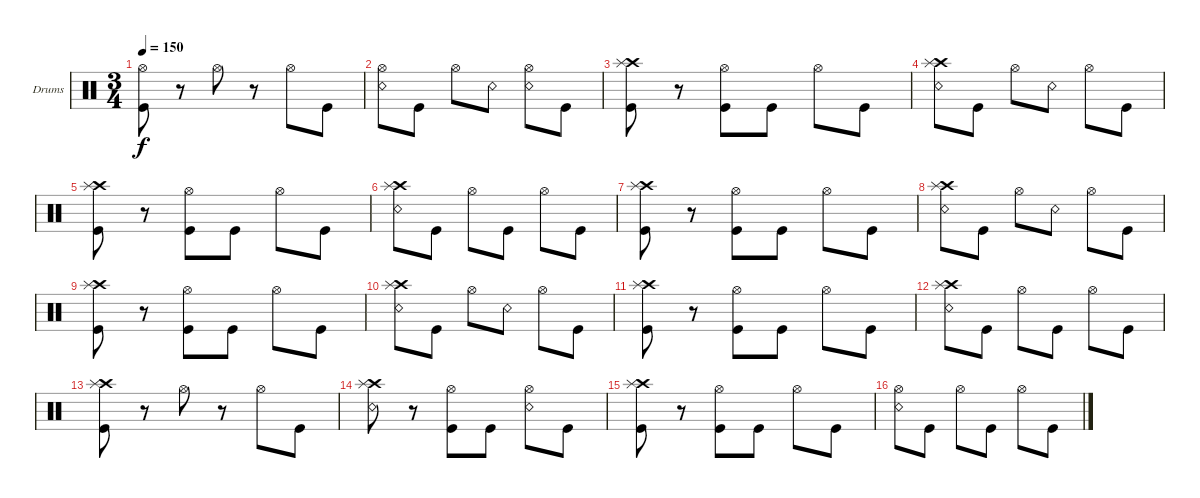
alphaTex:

\defaultSystemsLayout 4
\bracketExtendMode groupsimilarinstruments
\firstSystemTrackNameOrientation horizontal
\otherSystemsTrackNameOrientation horizontal
\track ("Scott" "Drums") {instrument percussion}
\staff {score}
\articulation defaults
\ts (3 4)
\tempo 150
\clef neutral
\scale
0.333333
\ks c
("Kick (hit)" "Hi-Hat (open)").8{dy f} r.8 "Hi-Hat (open)".8 r.8 "Hi-Hat (open)".8 "Kick (hit)".8 |
\scale
0.333333 ("Snare (rim shot)" "Hi-Hat (open)").8 "Kick (hit)".8 "Hi-Hat (open)".8 "Snare (rim shot)".8 ("Hi-Hat (open)" "Snare (rim shot)").8 "Kick (hit)".8 |
\scale
0.333333 ("Kick (hit)" "Crash high (hit)" "Splash (hit)").8 r.8 ("Kick (hit)" "Hi-Hat (open)").8 "Kick (hit)".8 "Hi-Hat (open)".8 "Kick (hit)".8 |
\scale
0.333333 ("Snare (rim shot)" "Crash high (hit)" "Splash (hit)").8 "Kick (hit)".8 "Hi-Hat (open)".8 "Snare (rim shot)".8 "Hi-Hat (open)".8 "Kick (hit)".8 |
\scale
0.333333 ("Kick (hit)" "Crash high (hit)" "Splash (hit)").8 r.8 ("Kick (hit)" "Hi-Hat (open)").8 "Kick (hit)".8 "Hi-Hat (open)".8 "Kick (hit)".8 |
\scale
0.333333 ("Snare (rim shot)" "Crash high (hit)" "Splash (hit)").8 "Kick (hit)".8 "Hi-Hat (open)".8 "Kick (hit)".8 "Hi-Hat (open)".8 "Kick (hit)".8 |
\scale
0.333333 ("Kick (hit)" "Crash high (hit)" "Splash (hit)").8 r.8 ("Kick (hit)" "Hi-Hat (open)").8 "Kick (hit)".8 "Hi-Hat (open)".8 "Kick (hit)".8 |
\scale
0.333333 ("Snare (rim shot)" "Crash high (hit)" "Splash (hit)").8 "Kick (hit)".8 "Hi-Hat (open)".8 "Snare (rim shot)".8 "Hi-Hat (open)".8 "Kick (hit)".8 |
\scale
0.333333 ("Kick (hit)" "Crash high (hit)" "Splash (hit)").8 r.8 ("Kick (hit)" "Hi-Hat (open)").8 "Kick (hit)".8 "Hi-Hat (open)".8 "Kick (hit)".8 |
\scale
0.333333 ("Snare (rim shot)" "Crash high (hit)" "Splash (hit)").8 "Kick (hit)".8 "Hi-Hat (open)".8 "Snare (rim shot)".8 "Hi-Hat (open)".8 "Kick (hit)".8 |
\scale
0.333333 ("Kick (hit)" "Crash high (hit)" "Splash (hit)").8 r.8 ("Kick (hit)" "Hi-Hat (open)").8 "Kick (hit)".8 "Hi-Hat (open)".8 "Kick (hit)".8 |
\scale
0.333333 ("Snare (rim shot)" "Crash high (hit)" "Splash (hit)").8 "Kick (hit)".8 "Hi-Hat (open)".8 "Kick (hit)".8 "Hi-Hat (open)".8 "Kick (hit)".8 |
\scale
0.333333 ("Kick (hit)" "Crash high (hit)" "Splash (hit)").8 r.8 "Hi-Hat (open)".8 r.8 "Hi-Hat (open)".8 "Kick (hit)".8 |
\scale
0.333333 ("Snare (rim shot)" "Crash high (hit)" "Splash (hit)").8 r.8 ("Kick (hit)" "Hi-Hat (open)").8 "Kick (hit)".8 ("Snare (rim shot)" "Hi-Hat (open)").8 "Kick (hit)".8 |
\scale
0.333333 ("Kick (hit)" "Crash high (hit)" "Splash (hit)").8 r.8 ("Kick (hit)" "Hi-Hat (open)").8 "Kick (hit)".8 "Hi-Hat (open)".8 "Kick (hit)".8 |
\scale
0.333333 ("Snare (rim shot)" "Hi-Hat (open)").8 "Kick (hit)".8 "Hi-Hat (open)".8 "Kick (hit)".8 "Hi-Hat (open)".8 "Kick (hit)".8
